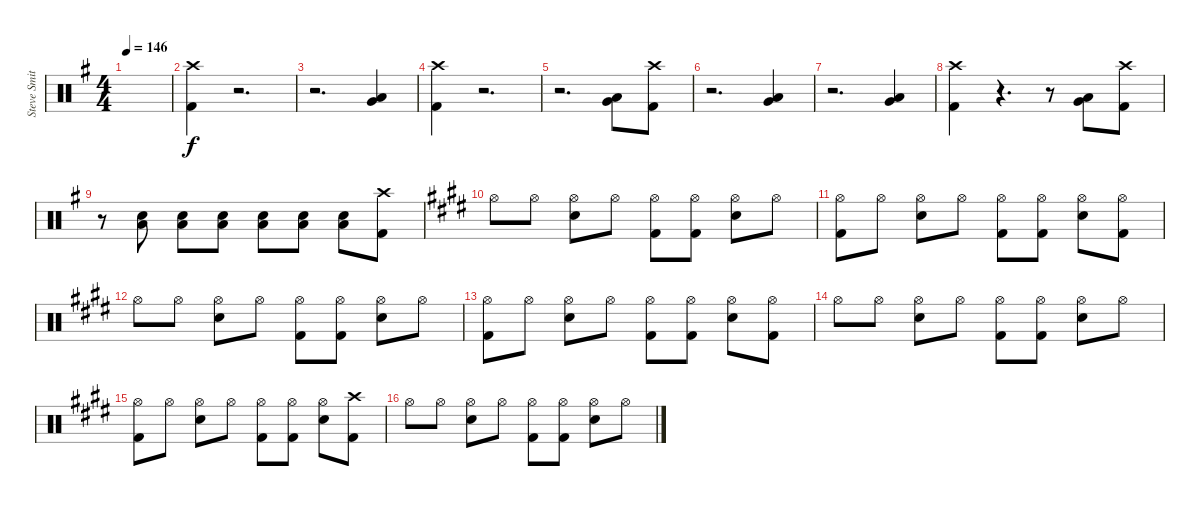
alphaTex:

\track ("Steve Smith" "Steve Smit") {instrument percussion}
\staff {score}
\articulation defaults
\ts (4 4)
\tempo 146
\clef neutral
\ks g
|
("Crash high (hit)" "Kick (hit) 2").4 r.2{d} |
r.2{d} ("Very Low Tom (hit)" "Low Tom (hit)").4 |
("Crash high (hit)" "Kick (hit) 2").4 r.2{d} |
r.2{d} ("Very Low Tom (hit)" "Low Tom (hit)").8 ("Crash high (hit)" "Kick (hit) 2").8 |
r.2{d} ("Very Low Tom (hit)" "Low Tom (hit)").4 |
r.2{d} ("Very Low Tom (hit)" "Low Tom (hit)").4 |
("Crash high (hit)" "Kick (hit) 2").4 r.4{d} r.8 ("Very Low Tom (hit)" "Low Tom (hit)").8 ("Crash high (hit)" "Kick (hit) 2").8 |
r.8 ("Snare (hit) 2" "Low Tom (hit)").8 ("Snare (hit) 2" "Low Tom (hit)").8 ("Snare (hit) 2" "Low Tom (hit)").8 ("Snare (hit) 2" "Low Tom (hit)").8 ("Snare (hit) 2" "Low Tom (hit)").8 ("Snare (hit) 2" "Low Tom (hit)").8 ("Crash high (hit)" "Kick (hit) 2").8 |
\ks e "Hi-Hat (open)".8 "Hi-Hat (open)".8
("Hi-Hat (open)" "Snare (hit) 2").8 "Hi-Hat (open)".8 ("Hi-Hat (open)" "Kick (hit) 2").8 ("Hi-Hat (open)" "Kick (hit) 2").8 ("Hi-Hat (open)" "Snare (hit) 2").8 "Hi-Hat (open)".8 |
("Hi-Hat (open)" "Kick (hit) 2").8 "Hi-Hat (open)".8 ("Hi-Hat (open)" "Snare (hit) 2").8 "Hi-Hat (open)".8 ("Hi-Hat (open)" "Kick (hit) 2").8 ("Hi-Hat (open)" "Kick (hit) 2").8 ("Hi-Hat (open)" "Snare (hit) 2").8 ("Hi-Hat (open)" "Kick (hit) 2").8 |
"Hi-Hat (open)".8 "Hi-Hat (open)".8 ("Hi-Hat (open)" "Snare (hit) 2").8 "Hi-Hat (open)".8 ("Hi-Hat (open)" "Kick (hit) 2").8 ("Hi-Hat (open)" "Kick (hit) 2").8 ("Hi-Hat (open)" "Snare (hit) 2").8 "Hi-Hat (open)".8 |
("Hi-Hat (open)" "Kick (hit) 2").8 "Hi-Hat (open)".8 ("Hi-Hat (open)" "Snare (hit) 2").8 "Hi-Hat (open)".8 ("Hi-Hat (open)" "Kick (hit) 2").8 ("Hi-Hat (open)" "Kick (hit) 2").8 ("Hi-Hat (open)" "Snare (hit) 2").8 ("Hi-Hat (open)" "Kick (hit) 2").8 |
"Hi-Hat (open)".8 "Hi-Hat (open)".8 ("Hi-Hat (open)" "Snare (hit) 2").8 "Hi-Hat (open)".8 ("Hi-Hat (open)" "Kick (hit) 2").8 ("Hi-Hat (open)" "Kick (hit) 2").8 ("Hi-Hat (open)" "Snare (hit) 2").8 "Hi-Hat (open)".8 |
("Hi-Hat (open)" "Kick (hit) 2").8 "Hi-Hat (open)".8 ("Hi-Hat (open)" "Snare (hit) 2").8 "Hi-Hat (open)".8 ("Hi-Hat (open)" "Kick (hit) 2").8 ("Hi-Hat (open)" "Kick (hit) 2").8 ("Hi-Hat (open)" "Snare (hit) 2").8 ("Crash high (hit)" "Kick (hit) 2").8 |
"Hi-Hat (open)".8 "Hi-Hat (open)".8 ("Hi-Hat (open)" "Snare (hit) 2").8 "Hi-Hat (open)".8 ("Hi-Hat (open)" "Kick (hit) 2").8 ("Hi-Hat (open)" "Kick (hit) 2").8 ("Hi-Hat (open)" "Snare (hit) 2").8 "Hi-Hat (open)".8
